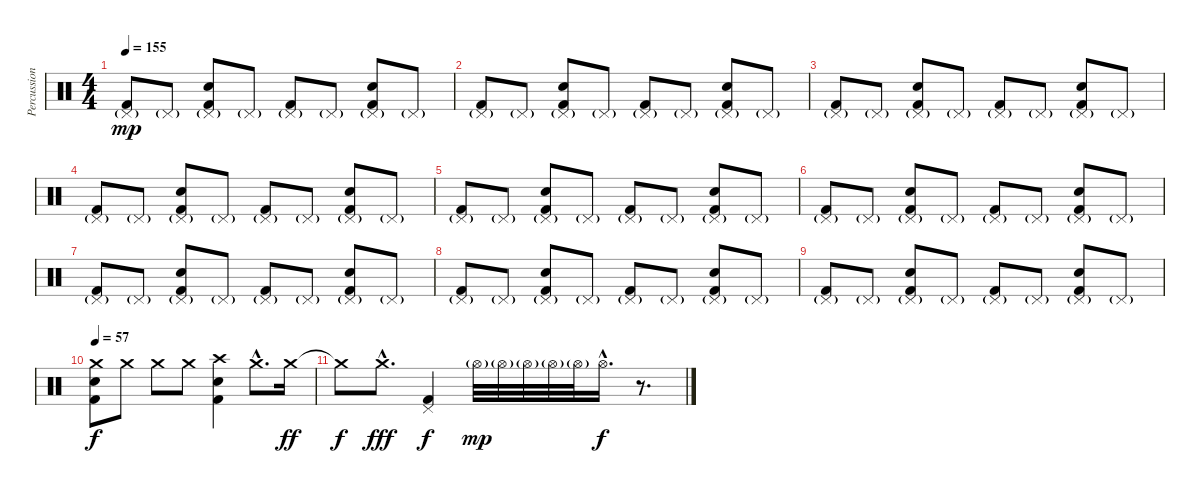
\track ("Percussions" "Percussion") {instrument percussion}
\staff {score}
\articulation defaults
\ts (4 4)
\tempo 155
\clef neutral
\ks c
("Pedal Hi-Hat (hit)"{g} "Kick (hit) 2").8{dy mp} "Pedal Hi-Hat (hit)"{g}.8 ("Pedal Hi-Hat (hit)"{g} "Snare (hit) 2" "Kick (hit) 2").8 "Pedal Hi-Hat (hit)"{g}.8 ("Pedal Hi-Hat (hit)"{g} "Kick (hit) 2").8 "Pedal Hi-Hat (hit)"{g}.8 ("Pedal Hi-Hat (hit)"{g} "Snare (hit) 2" "Kick (hit) 2").8 "Pedal Hi-Hat (hit)"{g}.8 |
("Pedal Hi-Hat (hit)"{g} "Kick (hit) 2").8 "Pedal Hi-Hat (hit)"{g}.8 ("Pedal Hi-Hat (hit)"{g} "Snare (hit) 2" "Kick (hit) 2").8 "Pedal Hi-Hat (hit)"{g}.8 ("Pedal Hi-Hat (hit)"{g} "Kick (hit) 2").8 "Pedal Hi-Hat (hit)"{g}.8 ("Pedal Hi-Hat (hit)"{g} "Snare (hit) 2" "Kick (hit) 2").8 "Pedal Hi-Hat (hit)"{g}.8 |
("Pedal Hi-Hat (hit)"{g} "Kick (hit) 2").8 "Pedal Hi-Hat (hit)"{g}.8 ("Pedal Hi-Hat (hit)"{g} "Snare (hit) 2" "Kick (hit) 2").8 "Pedal Hi-Hat (hit)"{g}.8 ("Pedal Hi-Hat (hit)"{g} "Kick (hit) 2").8 "Pedal Hi-Hat (hit)"{g}.8 ("Pedal Hi-Hat (hit)"{g} "Snare (hit) 2" "Kick (hit) 2").8 "Pedal Hi-Hat (hit)"{g}.8 |
("Pedal Hi-Hat (hit)"{g} "Kick (hit) 2").8 "Pedal Hi-Hat (hit)"{g}.8 ("Pedal Hi-Hat (hit)"{g} "Snare (hit) 2" "Kick (hit) 2").8 "Pedal Hi-Hat (hit)"{g}.8 ("Pedal Hi-Hat (hit)"{g} "Kick (hit) 2").8 "Pedal Hi-Hat (hit)"{g}.8 ("Pedal Hi-Hat (hit)"{g} "Snare (hit) 2" "Kick (hit) 2").8 "Pedal Hi-Hat (hit)"{g}.8 |
("Pedal Hi-Hat (hit)"{g} "Kick (hit) 2").8 "Pedal Hi-Hat (hit)"{g}.8 ("Pedal Hi-Hat (hit)"{g} "Snare (hit) 2" "Kick (hit) 2").8 "Pedal Hi-Hat (hit)"{g}.8 ("Pedal Hi-Hat (hit)"{g} "Kick (hit) 2").8 "Pedal Hi-Hat (hit)"{g}.8 ("Pedal Hi-Hat (hit)"{g} "Snare (hit) 2" "Kick (hit) 2").8 "Pedal Hi-Hat (hit)"{g}.8 |
("Pedal Hi-Hat (hit)"{g} "Kick (hit) 2").8 "Pedal Hi-Hat (hit)"{g}.8 ("Pedal Hi-Hat (hit)"{g} "Snare (hit) 2" "Kick (hit) 2").8 "Pedal Hi-Hat (hit)"{g}.8 ("Pedal Hi-Hat (hit)"{g} "Kick (hit) 2").8 "Pedal Hi-Hat (hit)"{g}.8 ("Pedal Hi-Hat (hit)"{g} "Snare (hit) 2" "Kick (hit) 2").8 "Pedal Hi-Hat (hit)"{g}.8 |
("Pedal Hi-Hat (hit)"{g} "Kick (hit) 2").8 "Pedal Hi-Hat (hit)"{g}.8 ("Pedal Hi-Hat (hit)"{g} "Snare (hit) 2" "Kick (hit) 2").8 "Pedal Hi-Hat (hit)"{g}.8 ("Pedal Hi-Hat (hit)"{g} "Kick (hit) 2").8 "Pedal Hi-Hat (hit)"{g}.8 ("Pedal Hi-Hat (hit)"{g} "Snare (hit) 2" "Kick (hit) 2").8 "Pedal Hi-Hat (hit)"{g}.8 |
("Pedal Hi-Hat (hit)"{g} "Kick (hit) 2").8 "Pedal Hi-Hat (hit)"{g}.8 ("Pedal Hi-Hat (hit)"{g} "Snare (hit) 2" "Kick (hit) 2").8 "Pedal Hi-Hat (hit)"{g}.8 ("Pedal Hi-Hat (hit)"{g} "Kick (hit) 2").8 "Pedal Hi-Hat (hit)"{g}.8 ("Pedal Hi-Hat (hit)"{g} "Snare (hit) 2" "Kick (hit) 2").8 "Pedal Hi-Hat (hit)"{g}.8 |
("Pedal Hi-Hat (hit)"{g} "Kick (hit) 2").8 "Pedal Hi-Hat (hit)"{g}.8 ("Pedal Hi-Hat (hit)"{g} "Snare (hit) 2" "Kick (hit) 2").8 "Pedal Hi-Hat (hit)"{g}.8 ("Pedal Hi-Hat (hit)"{g} "Kick (hit) 2").8 "Pedal Hi-Hat (hit)"{g}.8 ("Pedal Hi-Hat (hit)"{g} "Snare (hit) 2" "Kick (hit) 2").8 "Pedal Hi-Hat (hit)"{g}.8 |
\tempo 57
("Crash medium (hit)" "Snare (hit) 2" "Kick (hit) 2").8{dy f} "Crash medium (hit)".8 "Crash medium (hit)".8 "Crash medium (hit)".8 ("Crash high (hit)" "Snare (hit) 2" "Kick (hit) 2").4 "Crash medium (hit)"{hac}.8{d} "Crash medium (hit)".16{dy ff} |
"Crash medium (hit)"{t}.8{dy f} "Crash medium (hit)"{hac}.8{d dy fff} ("Pedal Hi-Hat (hit)" "Kick (hit) 2").4{dy f} "Hi-Hat (open)"{g}.32{dy mp} "Hi-Hat (open)"{g}.32 "Hi-Hat (open)"{g}.32 "Hi-Hat (open)"{g}.32 "Hi-Hat (open)"{g}.32 "Hi-Hat (open)"{hac}.16{d dy f} r.8{d}
